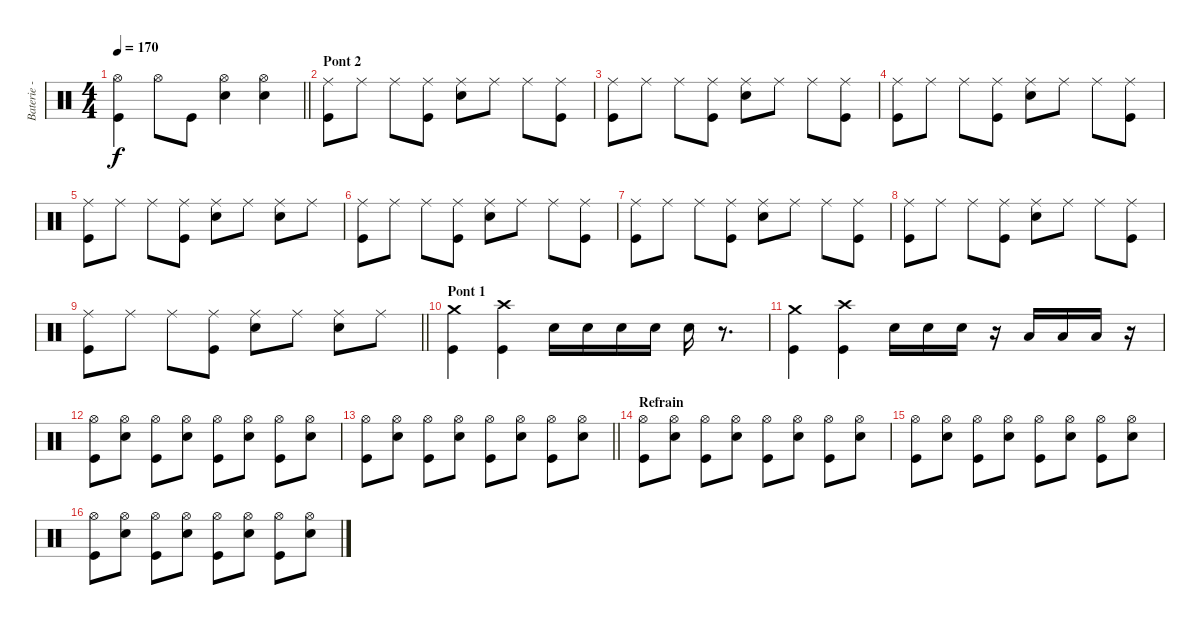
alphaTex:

\track ("Baterie - Guillaume" "Baterie - ") {instrument percussion}
\staff {score}
\articulation defaults
\ts (4 4)
\tempo 170
\clef neutral
\barLineRight lightlight
\ks c
("Hi-Hat (open)" "Kick (hit)").4{dy f} "Hi-Hat (open)".8 "Kick (hit)".8 ("Hi-Hat (open)" "Electric Snare (hit)").4 ("Hi-Hat (open)" "Electric Snare (hit)").4 |
\section ("" "Pont 2")
("Ride (middle)" "Kick (hit)").8 "Ride (middle)".8 "Ride (middle)".8 ("Ride (middle)" "Kick (hit)").8 ("Ride (middle)" "Electric Snare (hit)").8 "Ride (middle)".8 "Ride (middle)".8 ("Ride (middle)" "Kick (hit)").8 |
("Ride (middle)" "Kick (hit)").8 "Ride (middle)".8 "Ride (middle)".8 ("Ride (middle)" "Kick (hit)").8 ("Ride (middle)" "Electric Snare (hit)").8 "Ride (middle)".8 "Ride (middle)".8 ("Ride (middle)" "Kick (hit)").8 |
("Ride (middle)" "Kick (hit)").8 "Ride (middle)".8 "Ride (middle)".8 ("Ride (middle)" "Kick (hit)").8 ("Ride (middle)" "Electric Snare (hit)").8 "Ride (middle)".8 "Ride (middle)".8 ("Ride (middle)" "Kick (hit)").8 |
("Ride (middle)" "Kick (hit)").8 "Ride (middle)".8 "Ride (middle)".8 ("Ride (middle)" "Kick (hit)").8 ("Ride (middle)" "Electric Snare (hit)").8 "Ride (middle)".8 ("Ride (middle)" "Electric Snare (hit)").8 "Ride (middle)".8 |
("Ride (middle)" "Kick (hit)").8 "Ride (middle)".8 "Ride (middle)".8 ("Ride (middle)" "Kick (hit)").8 ("Ride (middle)" "Electric Snare (hit)").8 "Ride (middle)".8 "Ride (middle)".8 ("Ride (middle)" "Kick (hit)").8 |
("Ride (middle)" "Kick (hit)").8 "Ride (middle)".8 "Ride (middle)".8 ("Ride (middle)" "Kick (hit)").8 ("Ride (middle)" "Electric Snare (hit)").8 "Ride (middle)".8 "Ride (middle)".8 ("Ride (middle)" "Kick (hit)").8 |
("Ride (middle)" "Kick (hit)").8 "Ride (middle)".8 "Ride (middle)".8 ("Ride (middle)" "Kick (hit)").8 ("Ride (middle)" "Electric Snare (hit)").8 "Ride (middle)".8 "Ride (middle)".8 ("Ride (middle)" "Kick (hit)").8 |
\barLineRight lightlight
("Ride (middle)" "Kick (hit)").8 "Ride (middle)".8 "Ride (middle)".8 ("Ride (middle)" "Kick (hit)").8 ("Ride (middle)" "Electric Snare (hit)").8 "Ride (middle)".8 ("Ride (middle)" "Electric Snare (hit)").8 "Ride (middle)".8 |
\section ("" "Pont 1")
("Crash medium (hit)" "Kick (hit)").4 ("Crash high (hit)" "Kick (hit)").4 "Electric Snare (hit)".16 "Electric Snare (hit)".16 "Electric Snare (hit)".16 "Electric Snare (hit)".16 "Electric Snare (hit)".16 r.8{d} |
("Crash medium (hit)" "Kick (hit)").4 ("Crash high (hit)" "Kick (hit)").4 "Electric Snare (hit)".16 "Electric Snare (hit)".16 "Electric Snare (hit)".16 r.16 "Low Tom (hit)".16 "Low Tom (hit)".16 "Low Tom (hit)".16 r.16 |
("Hi-Hat (open)" "Kick (hit)").8 ("Hi-Hat (open)" "Electric Snare (hit)").8 ("Hi-Hat (open)" "Kick (hit)").8 ("Hi-Hat (open)" "Electric Snare (hit)").8 ("Hi-Hat (open)" "Kick (hit)").8 ("Hi-Hat (open)" "Electric Snare (hit)").8 ("Hi-Hat (open)" "Kick (hit)").8 ("Hi-Hat (open)" "Electric Snare (hit)").8 |
\barLineRight lightlight
("Hi-Hat (open)" "Kick (hit)").8 ("Hi-Hat (open)" "Electric Snare (hit)").8 ("Hi-Hat (open)" "Kick (hit)").8 ("Hi-Hat (open)" "Electric Snare (hit)").8 ("Hi-Hat (open)" "Kick (hit)").8 ("Hi-Hat (open)" "Electric Snare (hit)").8 ("Hi-Hat (open)" "Kick (hit)").8 ("Hi-Hat (open)" "Electric Snare (hit)").8 |
\section ("" "Refrain")
("Hi-Hat (open)" "Kick (hit)").8 ("Hi-Hat (open)" "Electric Snare (hit)").8 ("Hi-Hat (open)" "Kick (hit)").8 ("Hi-Hat (open)" "Electric Snare (hit)").8 ("Hi-Hat (open)" "Kick (hit)").8 ("Hi-Hat (open)" "Electric Snare (hit)").8 ("Hi-Hat (open)" "Kick (hit)").8 ("Hi-Hat (open)" "Electric Snare (hit)").8 |
("Hi-Hat (open)" "Kick (hit)").8 ("Hi-Hat (open)" "Electric Snare (hit)").8 ("Hi-Hat (open)" "Kick (hit)").8 ("Hi-Hat (open)" "Electric Snare (hit)").8 ("Hi-Hat (open)" "Kick (hit)").8 ("Hi-Hat (open)" "Electric Snare (hit)").8 ("Hi-Hat (open)" "Kick (hit)").8 ("Hi-Hat (open)" "Electric Snare (hit)").8 |
("Hi-Hat (open)" "Kick (hit)").8 ("Hi-Hat (open)" "Electric Snare (hit)").8 ("Hi-Hat (open)" "Kick (hit)").8 ("Hi-Hat (open)" "Electric Snare (hit)").8 ("Hi-Hat (open)" "Kick (hit)").8 ("Hi-Hat (open)" "Electric Snare (hit)").8 ("Hi-Hat (open)" "Kick (hit)").8 ("Hi-Hat (open)" "Electric Snare (hit)").8
